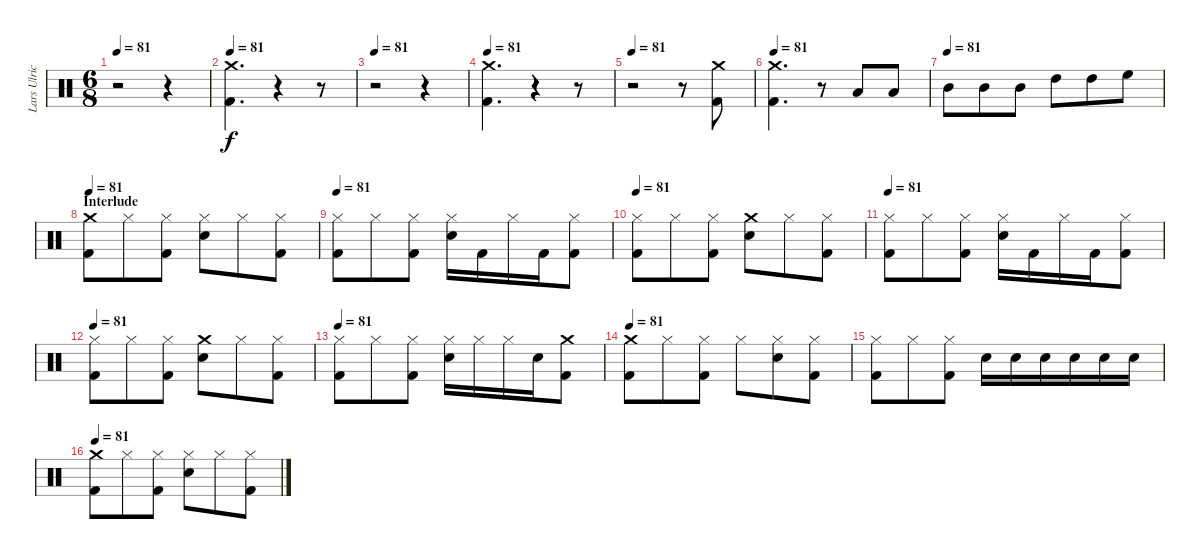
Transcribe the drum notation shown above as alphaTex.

\track ("Lars Ulrich (Drums)" "Lars Ulric") {instrument percussion}
\staff {score}
\articulation defaults
\ts (6 8)
\tempo 81
\clef neutral
\ks c
r.2{dy f} r.4 |
\tempo 81
("Kick (hit) 2" "Crash medium (hit)").4{d} r.4 r.8 |
\tempo 81
r.2 r.4 |
\tempo 81
("Crash medium (hit)" "Kick (hit) 2").4{d} r.4 r.8 |
\tempo 81
r.2 r.8 ("Kick (hit) 2" "Crash medium (hit)").8 |
\tempo 81
("Kick (hit) 2" "Crash medium (hit)").4{d} r.8 "Low Tom (hit)".8 "Low Tom (hit)".8 |
\tempo (81)
"Mid Tom (hit)".8 "Mid Tom (hit)".8 "Mid Tom (hit)".8 "High Tom (hit)".8 "High Tom (hit)".8 "High Floor Tom (hit)".8 |
\section ("" "Interlude")
\tempo 81
("Kick (hit) 2" "Crash medium (hit)").8 "Hi-Hat (closed)".8 ("Kick (hit) 2" "Hi-Hat (closed)").8 ("Hi-Hat (closed)" "Snare (hit) 2").8 "Hi-Hat (closed)".8 ("Kick (hit) 2" "Hi-Hat (closed)").8 |
\tempo 81
("Hi-Hat (closed)" "Kick (hit) 2").8 "Hi-Hat (closed)".8 ("Kick (hit) 2" "Hi-Hat (closed)").8 ("Hi-Hat (closed)" "Snare (hit) 2").16 "Kick (hit) 2".16 "Hi-Hat (closed)".16 "Kick (hit) 2".16 ("Kick (hit) 2" "Hi-Hat (closed)").8 |
\tempo 81
("Hi-Hat (closed)" "Kick (hit) 2").8 "Hi-Hat (closed)".8 ("Hi-Hat (closed)" "Kick (hit) 2").8 ("Crash medium (hit)" "Snare (hit) 2").8 "Hi-Hat (closed)".8 ("Kick (hit) 2" "Hi-Hat (closed)").8 |
\tempo 81
("Hi-Hat (closed)" "Kick (hit) 2").8 "Hi-Hat (closed)".8 ("Kick (hit) 2" "Hi-Hat (closed)").8 ("Hi-Hat (closed)" "Snare (hit) 2").16 "Kick (hit) 2".16 "Hi-Hat (closed)".16 "Kick (hit) 2".16 ("Kick (hit) 2" "Hi-Hat (closed)").8 |
\tempo 81
("Hi-Hat (closed)" "Kick (hit) 2").8 "Hi-Hat (closed)".8 ("Hi-Hat (closed)" "Kick (hit) 2").8 ("Crash medium (hit)" "Snare (hit) 2").8 "Hi-Hat (closed)".8 ("Kick (hit) 2" "Hi-Hat (closed)").8 |
\tempo 81
("Kick (hit) 2" "Hi-Hat (closed)").8 "Hi-Hat (closed)".8 ("Kick (hit) 2" "Hi-Hat (closed)").8 ("Hi-Hat (closed)" "Snare (hit) 2").16 "Hi-Hat (closed)".16 "Hi-Hat (closed)".16 "Snare (hit) 2".16 ("Crash medium (hit)" "Kick (hit) 2").8 |
\tempo 81
("Kick (hit) 2" "Crash medium (hit)").8 "Hi-Hat (closed)".8 ("Kick (hit) 2" "Hi-Hat (closed)").8 "Hi-Hat (closed)".8 ("Snare (hit) 2" "Hi-Hat (closed)").8 ("Kick (hit) 2" "Hi-Hat (closed)").8 |
("Hi-Hat (closed)" "Kick (hit) 2").8 "Hi-Hat (closed)".8 ("Hi-Hat (closed)" "Kick (hit) 2").8 "Snare (hit) 2".16 "Snare (hit) 2".16 "Snare (hit) 2".16 "Snare (hit) 2".16 "Snare (hit) 2".16 "Snare (hit) 2".16 |
\tempo 81
("Crash medium (hit)" "Kick (hit) 2").8 "Hi-Hat (closed)".8 ("Kick (hit) 2" "Hi-Hat (closed)").8 ("Snare (hit) 2" "Hi-Hat (closed)").8 "Hi-Hat (closed)".8 ("Kick (hit) 2" "Hi-Hat (closed)").8
